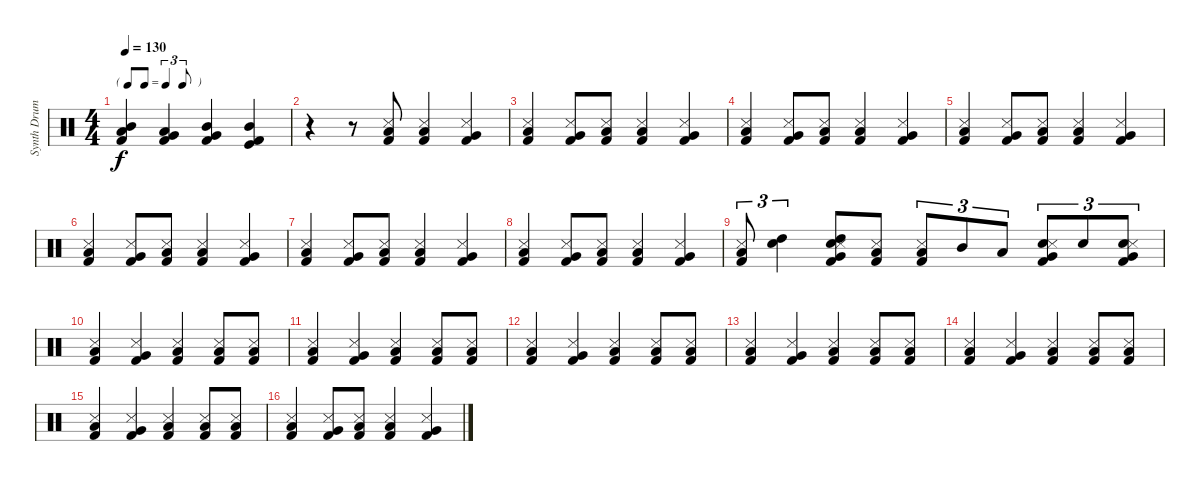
\track ("Synth Drums (Alan Wilder)" "Synth Drum") {instrument percussion}
\staff {score}
\articulation defaults
\ts (4 4)
\tf triplet8th
\tempo 130
\clef neutral
\ks c
("Mid Tom (hit)" "Low Tom (hit)" "Kick (hit) 2").4{dy f} ("Low Tom (hit)" "Very Low Tom (hit)" "Kick (hit) 2").4 ("Very Low Tom (hit)" "Mid Tom (hit)" "Kick (hit) 2").4 ("Mid Tom (hit)" "Kick (hit)" "Kick (hit) 2").4 |
r.4 r.8 ("Low Floor Tom (hit)" "Kick (hit) 2" "Snare (side stick) 3").8 ("Low Floor Tom (hit)" "Kick (hit) 2" "Snare (side stick) 3").4 ("Very Low Tom (hit)" "Kick (hit) 2" "Snare (side stick) 3").4 |
("Low Floor Tom (hit)" "Kick (hit) 2" "Snare (side stick) 3").4 ("Very Low Tom (hit)" "Kick (hit) 2" "Snare (side stick) 3").8 ("Low Floor Tom (hit)" "Kick (hit) 2" "Snare (side stick) 3").8 ("Low Floor Tom (hit)" "Kick (hit) 2" "Snare (side stick) 3").4 ("Very Low Tom (hit)" "Kick (hit) 2" "Snare (side stick) 3").4 |
("Low Floor Tom (hit)" "Kick (hit) 2" "Snare (side stick) 3").4 ("Very Low Tom (hit)" "Kick (hit) 2" "Snare (side stick) 3").8 ("Low Floor Tom (hit)" "Kick (hit) 2" "Snare (side stick) 3").8 ("Low Floor Tom (hit)" "Kick (hit) 2" "Snare (side stick) 3").4 ("Very Low Tom (hit)" "Kick (hit) 2" "Snare (side stick) 3").4 |
("Low Floor Tom (hit)" "Kick (hit) 2" "Snare (side stick) 3").4 ("Very Low Tom (hit)" "Kick (hit) 2" "Snare (side stick) 3").8 ("Low Floor Tom (hit)" "Kick (hit) 2" "Snare (side stick) 3").8 ("Low Floor Tom (hit)" "Kick (hit) 2" "Snare (side stick) 3").4 ("Very Low Tom (hit)" "Kick (hit) 2" "Snare (side stick) 3").4 |
("Low Floor Tom (hit)" "Kick (hit) 2" "Snare (side stick) 3").4 ("Very Low Tom (hit)" "Kick (hit) 2" "Snare (side stick) 3").8 ("Low Floor Tom (hit)" "Kick (hit) 2" "Snare (side stick) 3").8 ("Low Floor Tom (hit)" "Kick (hit) 2" "Snare (side stick) 3").4 ("Very Low Tom (hit)" "Kick (hit) 2" "Snare (side stick) 3").4 |
("Low Floor Tom (hit)" "Kick (hit) 2" "Snare (side stick) 3").4 ("Very Low Tom (hit)" "Kick (hit) 2" "Snare (side stick) 3").8 ("Low Floor Tom (hit)" "Kick (hit) 2" "Snare (side stick) 3").8 ("Low Floor Tom (hit)" "Kick (hit) 2" "Snare (side stick) 3").4 ("Very Low Tom (hit)" "Kick (hit) 2" "Snare (side stick) 3").4 |
("Low Floor Tom (hit)" "Kick (hit) 2" "Snare (side stick) 3").4 ("Very Low Tom (hit)" "Kick (hit) 2" "Snare (side stick) 3").8 ("Low Floor Tom (hit)" "Kick (hit) 2" "Snare (side stick) 3").8 ("Low Floor Tom (hit)" "Kick (hit) 2" "Snare (side stick) 3").4 ("Very Low Tom (hit)" "Kick (hit) 2" "Snare (side stick) 3").4 |
("Low Floor Tom (hit)" "Kick (hit) 2" "Snare (side stick) 3").8{tu (3 2)} ("High Tom (hit)" "Electric Snare (hit)").4{tu (3 2)} ("High Tom (hit)" "Electric Snare (hit)" "Very Low Tom (hit)" "Kick (hit) 2" "Snare (side stick) 3").8 ("Low Floor Tom (hit)" "Kick (hit) 2" "Snare (side stick) 3").8 ("Low Floor Tom (hit)" "Kick (hit) 2" "Snare (side stick) 3").8{tu (3 2)} "Mid Tom (hit)".8{tu (3 2)} "Low Tom (hit)".8{tu (3 2)} ("Electric Snare (hit)" "Very Low Tom (hit)" "Kick (hit) 2" "Snare (side stick) 3").8{tu (3 2)} "Electric Snare (hit)".8{tu (3 2)} ("Electric Snare (hit)" "Very Low Tom (hit)" "Kick (hit) 2" "Snare (side stick) 3").8{tu (3 2)} |
("Low Floor Tom (hit)" "Kick (hit) 2" "Snare (side stick) 3").4 ("Very Low Tom (hit)" "Kick (hit) 2" "Snare (side stick) 3").4 ("Low Floor Tom (hit)" "Kick (hit) 2" "Snare (side stick) 3").4 ("Low Floor Tom (hit)" "Kick (hit) 2" "Snare (side stick) 3").8 ("Low Floor Tom (hit)" "Kick (hit) 2" "Snare (side stick) 3").8 |
("Low Floor Tom (hit)" "Kick (hit) 2" "Snare (side stick) 3").4 ("Very Low Tom (hit)" "Kick (hit) 2" "Snare (side stick) 3").4 ("Low Floor Tom (hit)" "Kick (hit) 2" "Snare (side stick) 3").4 ("Low Floor Tom (hit)" "Kick (hit) 2" "Snare (side stick) 3").8 ("Low Floor Tom (hit)" "Kick (hit) 2" "Snare (side stick) 3").8 |
("Low Floor Tom (hit)" "Kick (hit) 2" "Snare (side stick) 3").4 ("Very Low Tom (hit)" "Kick (hit) 2" "Snare (side stick) 3").4 ("Low Floor Tom (hit)" "Kick (hit) 2" "Snare (side stick) 3").4 ("Low Floor Tom (hit)" "Kick (hit) 2" "Snare (side stick) 3").8 ("Low Floor Tom (hit)" "Kick (hit) 2" "Snare (side stick) 3").8 |
("Low Floor Tom (hit)" "Kick (hit) 2" "Snare (side stick) 3").4 ("Very Low Tom (hit)" "Kick (hit) 2" "Snare (side stick) 3").4 ("Low Floor Tom (hit)" "Kick (hit) 2" "Snare (side stick) 3").4 ("Low Floor Tom (hit)" "Kick (hit) 2" "Snare (side stick) 3").8 ("Low Floor Tom (hit)" "Kick (hit) 2" "Snare (side stick) 3").8 |
("Low Floor Tom (hit)" "Kick (hit) 2" "Snare (side stick) 3").4 ("Very Low Tom (hit)" "Kick (hit) 2" "Snare (side stick) 3").4 ("Low Floor Tom (hit)" "Kick (hit) 2" "Snare (side stick) 3").4 ("Low Floor Tom (hit)" "Kick (hit) 2" "Snare (side stick) 3").8 ("Low Floor Tom (hit)" "Kick (hit) 2" "Snare (side stick) 3").8 |
("Low Floor Tom (hit)" "Kick (hit) 2" "Snare (side stick) 3").4 ("Very Low Tom (hit)" "Kick (hit) 2" "Snare (side stick) 3").4 ("Low Floor Tom (hit)" "Kick (hit) 2" "Snare (side stick) 3").4 ("Low Floor Tom (hit)" "Kick (hit) 2" "Snare (side stick) 3").8 ("Low Floor Tom (hit)" "Kick (hit) 2" "Snare (side stick) 3").8 |
("Low Floor Tom (hit)" "Kick (hit) 2" "Snare (side stick) 3").4 ("Very Low Tom (hit)" "Kick (hit) 2" "Snare (side stick) 3").8 ("Low Floor Tom (hit)" "Kick (hit) 2" "Snare (side stick) 3").8 ("Low Floor Tom (hit)" "Kick (hit) 2" "Snare (side stick) 3").4 ("Very Low Tom (hit)" "Kick (hit) 2" "Snare (side stick) 3").4
